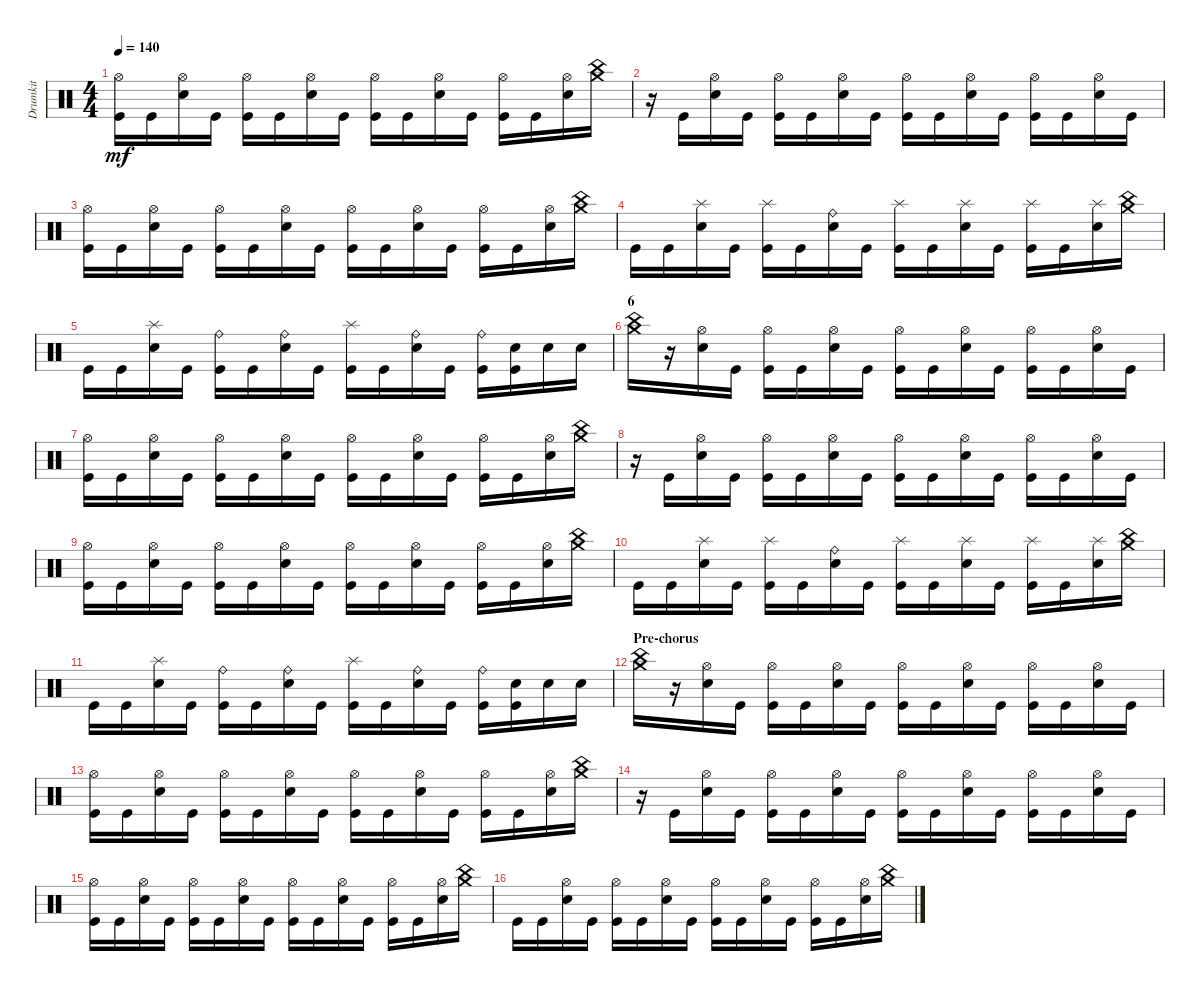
\track ("Drumkit" "Drumkit") {instrument percussion}
\staff {score}
\articulation defaults
\ts (4 4)
\tempo 140
\clef neutral
\ks c
("Kick (hit)" "Hi-Hat (open)").16{dy mf} "Kick (hit)".16 ("Snare (hit) 2" "Hi-Hat (open)").16 "Kick (hit)".16 ("Kick (hit)" "Hi-Hat (open)").16 "Kick (hit)".16 ("Snare (hit) 2" "Hi-Hat (open)").16 "Kick (hit)".16 ("Kick (hit)" "Hi-Hat (open)").16 "Kick (hit)".16 ("Snare (hit) 2" "Hi-Hat (open)").16 "Kick (hit)".16 ("Kick (hit)" "Hi-Hat (open)").16 "Kick (hit)".16 ("Snare (hit) 2" "Hi-Hat (open)").16 ("China (hit)" "Crash medium (hit)").16 |
r.16 "Kick (hit)".16 ("Snare (hit) 2" "Hi-Hat (open)").16 "Kick (hit)".16 ("Kick (hit)" "Hi-Hat (open)").16 "Kick (hit)".16 ("Snare (hit) 2" "Hi-Hat (open)").16 "Kick (hit)".16 ("Kick (hit)" "Hi-Hat (open)").16 "Kick (hit)".16 ("Snare (hit) 2" "Hi-Hat (open)").16 "Kick (hit)".16 ("Kick (hit)" "Hi-Hat (open)").16 "Kick (hit)".16 ("Snare (hit) 2" "Hi-Hat (open)").16 "Kick (hit)".16 |
("Kick (hit)" "Hi-Hat (open)").16 "Kick (hit)".16 ("Snare (hit) 2" "Hi-Hat (open)").16 "Kick (hit)".16 ("Kick (hit)" "Hi-Hat (open)").16 "Kick (hit)".16 ("Snare (hit) 2" "Hi-Hat (open)").16 "Kick (hit)".16 ("Kick (hit)" "Hi-Hat (open)").16 "Kick (hit)".16 ("Snare (hit) 2" "Hi-Hat (open)").16 "Kick (hit)".16 ("Kick (hit)" "Hi-Hat (open)").16 "Kick (hit)".16 ("Snare (hit) 2" "Hi-Hat (open)").16 ("China (hit)" "Crash medium (hit)").16 |
"Kick (hit)".16 "Kick (hit)".16 ("Snare (hit) 2" "Splash (hit)").16 "Kick (hit)".16 ("Kick (hit)" "Splash (hit)").16 "Kick (hit)".16 ("Snare (hit) 2" "Ride (bell)").16 "Kick (hit)".16 ("Kick (hit)" "Splash (hit)").16 "Kick (hit)".16 ("Snare (hit) 2" "Splash (hit)").16 "Kick (hit)".16 ("Kick (hit)" "Splash (hit)").16 "Kick (hit)".16 ("Snare (hit) 2" "Splash (hit)").16 ("China (hit)" "Crash medium (hit)").16 |
"Kick (hit)".16 "Kick (hit)".16 ("Snare (hit) 2" "Splash (hit)").16 "Kick (hit)".16 ("Kick (hit)" "Ride (bell)").16 "Kick (hit)".16 ("Snare (hit) 2" "Ride (bell)").16 "Kick (hit)".16 ("Kick (hit)" "Splash (hit)").16 "Kick (hit)".16 ("Snare (hit) 2" "Ride (bell)").16 "Kick (hit)".16 ("Kick (hit)" "Ride (bell)").16 ("Kick (hit)" "Snare (hit) 2").16 "Snare (hit) 2".16 "Snare (hit) 2".16 |
\section ("" "6")
("China (hit)" "Crash medium (hit)").16 r.16 ("Snare (hit) 2" "Hi-Hat (open)").16 "Kick (hit)".16 ("Kick (hit)" "Hi-Hat (open)").16 "Kick (hit)".16 ("Snare (hit) 2" "Hi-Hat (open)").16 "Kick (hit)".16 ("Kick (hit)" "Hi-Hat (open)").16 "Kick (hit)".16 ("Snare (hit) 2" "Hi-Hat (open)").16 "Kick (hit)".16 ("Kick (hit)" "Hi-Hat (open)").16 "Kick (hit)".16 ("Snare (hit) 2" "Hi-Hat (open)").16 "Kick (hit)".16 |
("Kick (hit)" "Hi-Hat (open)").16 "Kick (hit)".16 ("Snare (hit) 2" "Hi-Hat (open)").16 "Kick (hit)".16 ("Kick (hit)" "Hi-Hat (open)").16 "Kick (hit)".16 ("Snare (hit) 2" "Hi-Hat (open)").16 "Kick (hit)".16 ("Kick (hit)" "Hi-Hat (open)").16 "Kick (hit)".16 ("Snare (hit) 2" "Hi-Hat (open)").16 "Kick (hit)".16 ("Kick (hit)" "Hi-Hat (open)").16 "Kick (hit)".16 ("Snare (hit) 2" "Hi-Hat (open)").16 ("China (hit)" "Crash medium (hit)").16 |
r.16 "Kick (hit)".16 ("Snare (hit) 2" "Hi-Hat (open)").16 "Kick (hit)".16 ("Kick (hit)" "Hi-Hat (open)").16 "Kick (hit)".16 ("Snare (hit) 2" "Hi-Hat (open)").16 "Kick (hit)".16 ("Kick (hit)" "Hi-Hat (open)").16 "Kick (hit)".16 ("Snare (hit) 2" "Hi-Hat (open)").16 "Kick (hit)".16 ("Kick (hit)" "Hi-Hat (open)").16 "Kick (hit)".16 ("Snare (hit) 2" "Hi-Hat (open)").16 "Kick (hit)".16 |
("Kick (hit)" "Hi-Hat (open)").16 "Kick (hit)".16 ("Snare (hit) 2" "Hi-Hat (open)").16 "Kick (hit)".16 ("Kick (hit)" "Hi-Hat (open)").16 "Kick (hit)".16 ("Snare (hit) 2" "Hi-Hat (open)").16 "Kick (hit)".16 ("Kick (hit)" "Hi-Hat (open)").16 "Kick (hit)".16 ("Snare (hit) 2" "Hi-Hat (open)").16 "Kick (hit)".16 ("Kick (hit)" "Hi-Hat (open)").16 "Kick (hit)".16 ("Snare (hit) 2" "Hi-Hat (open)").16 ("China (hit)" "Crash medium (hit)").16 |
"Kick (hit)".16 "Kick (hit)".16 ("Snare (hit) 2" "Splash (hit)").16 "Kick (hit)".16 ("Kick (hit)" "Splash (hit)").16 "Kick (hit)".16 ("Snare (hit) 2" "Ride (bell)").16 "Kick (hit)".16 ("Kick (hit)" "Splash (hit)").16 "Kick (hit)".16 ("Snare (hit) 2" "Splash (hit)").16 "Kick (hit)".16 ("Kick (hit)" "Splash (hit)").16 "Kick (hit)".16 ("Snare (hit) 2" "Splash (hit)").16 ("China (hit)" "Crash medium (hit)").16 |
"Kick (hit)".16 "Kick (hit)".16 ("Snare (hit) 2" "Splash (hit)").16 "Kick (hit)".16 ("Kick (hit)" "Ride (bell)").16 "Kick (hit)".16 ("Snare (hit) 2" "Ride (bell)").16 "Kick (hit)".16 ("Kick (hit)" "Splash (hit)").16 "Kick (hit)".16 ("Snare (hit) 2" "Ride (bell)").16 "Kick (hit)".16 ("Kick (hit)" "Ride (bell)").16 ("Kick (hit)" "Snare (hit) 2").16 "Snare (hit) 2".16 "Snare (hit) 2".16 |
\section ("" "Pre-chorus")
("China (hit)" "Crash medium (hit)").16 r.16 ("Snare (hit) 2" "Hi-Hat (open)").16 "Kick (hit)".16 ("Kick (hit)" "Hi-Hat (open)").16 "Kick (hit)".16 ("Snare (hit) 2" "Hi-Hat (open)").16 "Kick (hit)".16 ("Kick (hit)" "Hi-Hat (open)").16 "Kick (hit)".16 ("Snare (hit) 2" "Hi-Hat (open)").16 "Kick (hit)".16 ("Kick (hit)" "Hi-Hat (open)").16 "Kick (hit)".16 ("Snare (hit) 2" "Hi-Hat (open)").16 "Kick (hit)".16 |
("Kick (hit)" "Hi-Hat (open)").16 "Kick (hit)".16 ("Snare (hit) 2" "Hi-Hat (open)").16 "Kick (hit)".16 ("Kick (hit)" "Hi-Hat (open)").16 "Kick (hit)".16 ("Snare (hit) 2" "Hi-Hat (open)").16 "Kick (hit)".16 ("Kick (hit)" "Hi-Hat (open)").16 "Kick (hit)".16 ("Snare (hit) 2" "Hi-Hat (open)").16 "Kick (hit)".16 ("Kick (hit)" "Hi-Hat (open)").16 "Kick (hit)".16 ("Snare (hit) 2" "Hi-Hat (open)").16 ("China (hit)" "Crash medium (hit)").16 |
r.16 "Kick (hit)".16 ("Snare (hit) 2" "Hi-Hat (open)").16 "Kick (hit)".16 ("Kick (hit)" "Hi-Hat (open)").16 "Kick (hit)".16 ("Snare (hit) 2" "Hi-Hat (open)").16 "Kick (hit)".16 ("Kick (hit)" "Hi-Hat (open)").16 "Kick (hit)".16 ("Snare (hit) 2" "Hi-Hat (open)").16 "Kick (hit)".16 ("Kick (hit)" "Hi-Hat (open)").16 "Kick (hit)".16 ("Snare (hit) 2" "Hi-Hat (open)").16 "Kick (hit)".16 |
("Kick (hit)" "Hi-Hat (open)").16 "Kick (hit)".16 ("Snare (hit) 2" "Hi-Hat (open)").16 "Kick (hit)".16 ("Kick (hit)" "Hi-Hat (open)").16 "Kick (hit)".16 ("Snare (hit) 2" "Hi-Hat (open)").16 "Kick (hit)".16 ("Kick (hit)" "Hi-Hat (open)").16 "Kick (hit)".16 ("Snare (hit) 2" "Hi-Hat (open)").16 "Kick (hit)".16 ("Kick (hit)" "Hi-Hat (open)").16 "Kick (hit)".16 ("Snare (hit) 2" "Hi-Hat (open)").16 ("China (hit)" "Crash medium (hit)").16 |
"Kick (hit)".16 "Kick (hit)".16 ("Snare (hit) 2" "Hi-Hat (open)").16 "Kick (hit)".16 ("Kick (hit)" "Hi-Hat (open)").16 "Kick (hit)".16 ("Snare (hit) 2" "Hi-Hat (open)").16 "Kick (hit)".16 ("Kick (hit)" "Hi-Hat (open)").16 "Kick (hit)".16 ("Snare (hit) 2" "Hi-Hat (open)").16 "Kick (hit)".16 ("Kick (hit)" "Hi-Hat (open)").16 "Kick (hit)".16 ("Snare (hit) 2" "Hi-Hat (open)").16 ("China (hit)" "Crash medium (hit)").16
